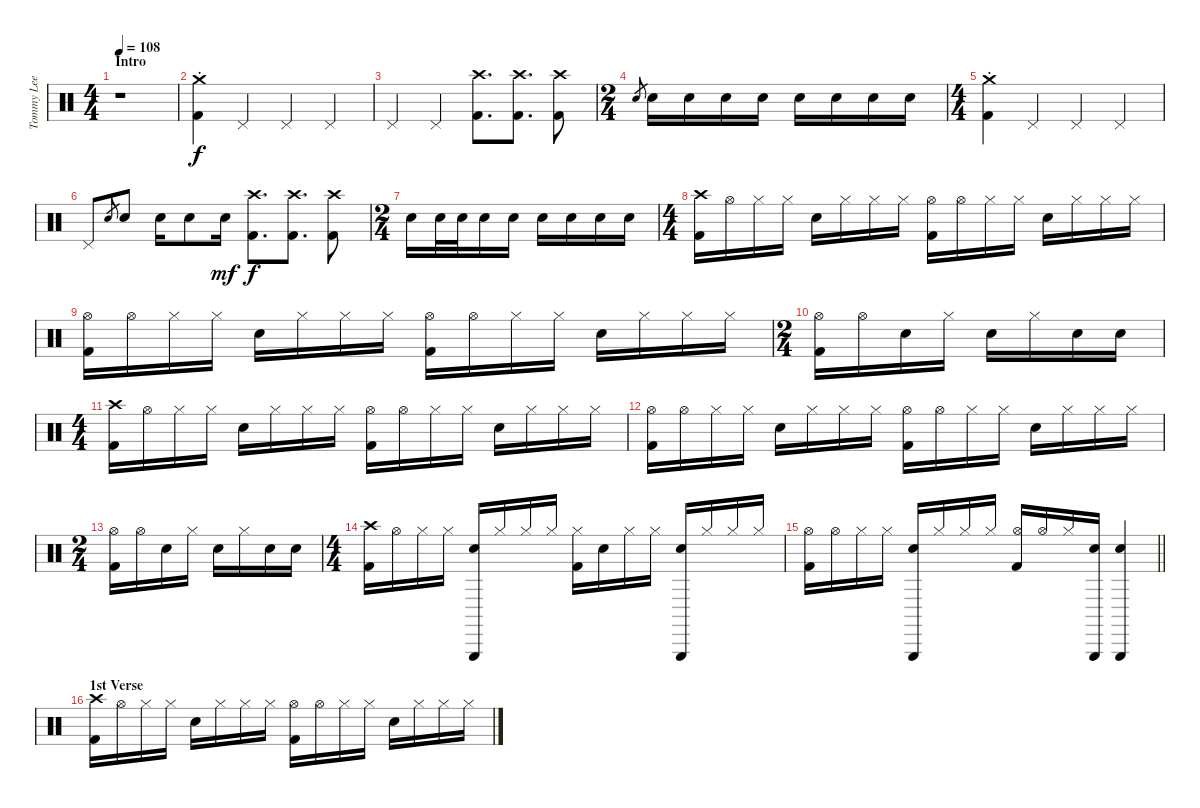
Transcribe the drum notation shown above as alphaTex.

\track ("Tommy Lee - Drums" "Tommy Lee ") {instrument percussion}
\staff {score}
\articulation defaults
\ts (4 4)
\section ("" "Intro")
\tempo 108
\clef neutral
\ks c
r.1{dy f} |
("Crash medium (hit)"{st} "Kick (hit) 2"{st}).4 "Pedal Hi-Hat (hit)".4 "Pedal Hi-Hat (hit)".4 "Pedal Hi-Hat (hit)".4 |
"Pedal Hi-Hat (hit)".4 "Pedal Hi-Hat (hit)".4 ("Crash high (hit)" "Kick (hit) 2").8{d} ("Crash high (hit)" "Kick (hit) 2").8{d} ("Crash high (hit)" "Kick (hit) 2").8 |
\ts (2 4)
"Snare (hit) 2".8{gr} "Snare (hit) 2".16 "Snare (hit) 2".16 "Snare (hit) 2".16 "Snare (hit) 2".16 "Snare (hit) 2".16 "Snare (hit) 2".16 "Snare (hit) 2".16 "Snare (hit) 2".16 |
\ts (4 4)
("Crash medium (hit)"{st} "Kick (hit) 2"{st}).4 "Pedal Hi-Hat (hit)".4 "Pedal Hi-Hat (hit)".4 "Pedal Hi-Hat (hit)".4 |
"Pedal Hi-Hat (hit)".8 "Snare (hit) 2".8{gr} "Snare (hit) 2".8 "Snare (hit) 2".16 "Snare (hit) 2".8 "Snare (hit) 2".16{dy mf} ("Crash high (hit)" "Kick (hit) 2").8{d dy f} ("Crash high (hit)" "Kick (hit) 2").8{d} ("Crash high (hit)" "Kick (hit) 2").8 |
\ts (2 4)
"Snare (hit) 2".16 "Snare (hit) 2".32 "Snare (hit) 2".32 "Snare (hit) 2".16 "Snare (hit) 2".16 "Snare (hit) 2".16 "Snare (hit) 2".16 "Snare (hit) 2".16 "Snare (hit) 2".16 |
\ts (4 4)
("Crash high (hit)" "Kick (hit) 2").16 "Hi-Hat (open)".16 "Hi-Hat (closed)".16 "Hi-Hat (closed)".16 "Snare (hit) 2".16 "Hi-Hat (closed)".16 "Hi-Hat (closed)".16 "Hi-Hat (closed)".16 ("Hi-Hat (open)" "Kick (hit) 2").16 "Hi-Hat (open)".16 "Hi-Hat (closed)".16 "Hi-Hat (closed)".16 "Snare (hit) 2".16 "Hi-Hat (closed)".16 "Hi-Hat (closed)".16 "Hi-Hat (closed)".16 |
("Hi-Hat (open)" "Kick (hit) 2").16 "Hi-Hat (open)".16 "Hi-Hat (closed)".16 "Hi-Hat (closed)".16 "Snare (hit) 2".16 "Hi-Hat (closed)".16 "Hi-Hat (closed)".16 "Hi-Hat (closed)".16 ("Hi-Hat (open)" "Kick (hit) 2").16 "Hi-Hat (open)".16 "Hi-Hat (closed)".16 "Hi-Hat (closed)".16 "Snare (hit) 2".16 "Hi-Hat (closed)".16 "Hi-Hat (closed)".16 "Hi-Hat (closed)".16 |
\ts (2 4)
("Hi-Hat (open)" "Kick (hit) 2").16 "Hi-Hat (open)".16 "Snare (hit) 2".16 "Hi-Hat (closed)".16 "Snare (hit) 2".16 "Hi-Hat (closed)".16 "Snare (hit) 2".16 "Snare (hit) 2".16 |
\ts (4 4)
("Crash high (hit)" "Kick (hit) 2").16 "Hi-Hat (open)".16 "Hi-Hat (closed)".16 "Hi-Hat (closed)".16 "Snare (hit) 2".16 "Hi-Hat (closed)".16 "Hi-Hat (closed)".16 "Hi-Hat (closed)".16 ("Hi-Hat (open)" "Kick (hit) 2").16 "Hi-Hat (open)".16 "Hi-Hat (closed)".16 "Hi-Hat (closed)".16 "Snare (hit) 2".16 "Hi-Hat (closed)".16 "Hi-Hat (closed)".16 "Hi-Hat (closed)".16 |
("Hi-Hat (open)" "Kick (hit) 2").16 "Hi-Hat (open)".16 "Hi-Hat (closed)".16 "Hi-Hat (closed)".16 "Snare (hit) 2".16 "Hi-Hat (closed)".16 "Hi-Hat (closed)".16 "Hi-Hat (closed)".16 ("Hi-Hat (open)" "Kick (hit) 2").16 "Hi-Hat (open)".16 "Hi-Hat (closed)".16 "Hi-Hat (closed)".16 "Snare (hit) 2".16 "Hi-Hat (closed)".16 "Hi-Hat (closed)".16 "Hi-Hat (closed)".16 |
\ts (2 4)
("Hi-Hat (open)" "Kick (hit) 2").16 "Hi-Hat (open)".16 "Snare (hit) 2".16 "Hi-Hat (closed)".16 "Snare (hit) 2".16 "Hi-Hat (closed)".16 "Snare (hit) 2".16 "Snare (hit) 2".16 |
\ts (4 4)
("Crash high (hit)" "Kick (hit) 2").16 "Hi-Hat (open)".16 "Hi-Hat (closed)".16 "Hi-Hat (closed)".16 ("Snare (hit) 2" "Triangle (hit)").16 "Hi-Hat (closed)".16 "Hi-Hat (closed)".16 "Hi-Hat (closed)".16 ("Hi-Hat (closed)" "Kick (hit) 2").16 "Snare (hit) 2".16 "Hi-Hat (closed)".16 "Hi-Hat (closed)".16 ("Snare (hit) 2" "Triangle (hit)").16 "Hi-Hat (closed)".16 "Hi-Hat (closed)".16 "Hi-Hat (closed)".16 |
\barLineRight lightlight
("Hi-Hat (open)" "Kick (hit) 2").16 "Hi-Hat (open)".16 "Hi-Hat (closed)".16 "Hi-Hat (closed)".16 ("Snare (hit) 2" "Triangle (hit)").16 "Hi-Hat (closed)".16 "Hi-Hat (closed)".16 "Hi-Hat (closed)".16 ("Hi-Hat (open)" "Kick (hit) 2").16 "Hi-Hat (open)".16 "Hi-Hat (closed)".16 ("Snare (hit) 2" "Triangle (hit)").16 ("Snare (hit) 2" "Triangle (hit)").4 |
\section ("" "1st Verse")
("Crash high (hit)" "Kick (hit) 2").16 "Hi-Hat (open)".16 "Hi-Hat (closed)".16 "Hi-Hat (closed)".16 "Snare (hit) 2".16 "Hi-Hat (closed)".16 "Hi-Hat (closed)".16 "Hi-Hat (closed)".16 ("Hi-Hat (open)" "Kick (hit) 2").16 "Hi-Hat (open)".16 "Hi-Hat (closed)".16 "Hi-Hat (closed)".16 "Snare (hit) 2".16 "Hi-Hat (closed)".16 "Hi-Hat (closed)".16 "Hi-Hat (closed)".16
